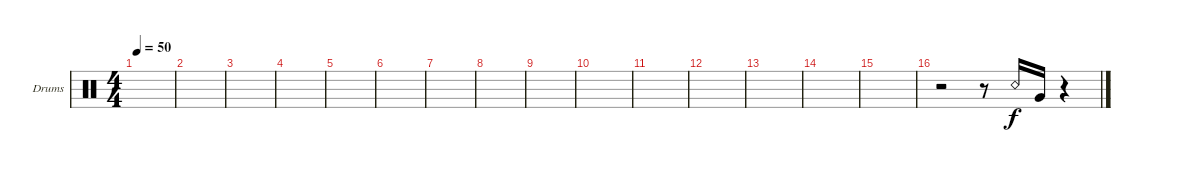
\defaultSystemsLayout 4
\bracketExtendMode groupsimilarinstruments
\firstSystemTrackNameOrientation horizontal
\otherSystemsTrackNameOrientation horizontal
\track ("Илья" "Drums") {instrument percussion}
\staff {score}
\articulation defaults
\ts (4 4)
\tempo 50
\clef neutral
\ks c
|
|
|
|
|
|
|
|
|
|
|
|
|
|
|
r.2 r.8 "Snare (rim shot)".16 "Very Low Tom (hit)".16 r.4
